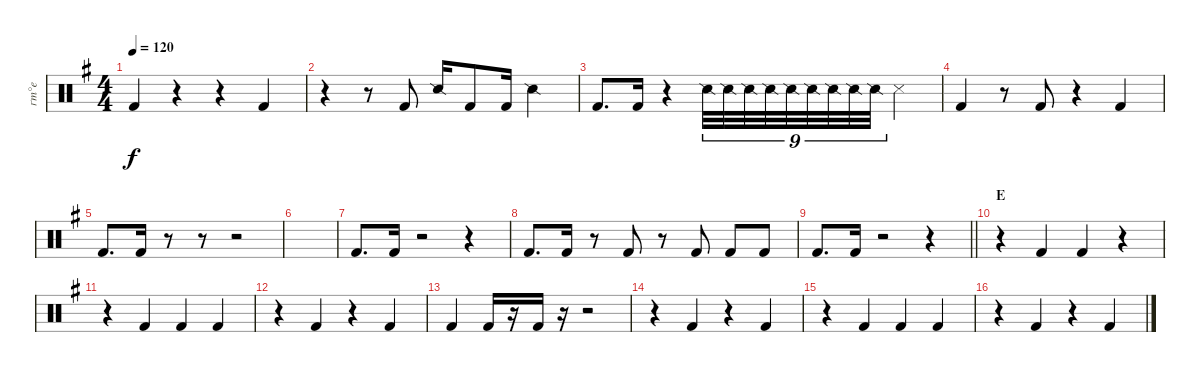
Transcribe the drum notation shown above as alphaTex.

\track ("ґт°е" "ґт°е") {instrument percussion}
\staff {score}
\articulation defaults
\ts (4 4)
\tempo 120
\clef neutral
\ks g "Kick (hit) 2".4{dy f}
r.4 r.4 "Kick (hit) 2".4 |
r.4 r.8 "Kick (hit) 2".8 "Snare (side stick) 2".16 "Kick (hit) 2".8 "Kick (hit) 2".16 "Snare (side stick) 2".4 |
"Kick (hit) 2".8{d} "Kick (hit) 2".16 r.4 "Snare (side stick) 2".32{tu (9 8)} "Snare (side stick) 2".32{tu (9 8)} "Snare (side stick) 2".32{tu (9 8)} "Snare (side stick) 2".32{tu (9 8)} "Snare (side stick) 2".32{tu (9 8)} "Snare (side stick) 2".32{tu (9 8)} "Snare (side stick) 2".32{tu (9 8)} "Snare (side stick) 2".32{tu (9 8)} "Snare (side stick) 2".32{tu (9 8)} "Snare (side stick) 3".4 |
"Kick (hit) 2".4 r.8 "Kick (hit) 2".8 r.4 "Kick (hit) 2".4 |
"Kick (hit) 2".8{d} "Kick (hit) 2".16 r.8 r.8 r.2 |
|
"Kick (hit) 2".8{d} "Kick (hit) 2".16 r.2 r.4 |
"Kick (hit) 2".8{d} "Kick (hit) 2".16 r.8 "Kick (hit) 2".8 r.8 "Kick (hit) 2".8 "Kick (hit) 2".8 "Kick (hit) 2".8 |
\barLineRight lightlight "Kick (hit) 2".8{d} "Kick (hit) 2".16
r.2 r.4 |
\section ("" "E")
r.4 "Kick (hit) 2".4 "Kick (hit) 2".4 r.4 |
r.4 "Kick (hit) 2".4 "Kick (hit) 2".4 "Kick (hit) 2".4 |
r.4 "Kick (hit) 2".4 r.4 "Kick (hit) 2".4 |
"Kick (hit) 2".4 "Kick (hit) 2".16 r.16 "Kick (hit) 2".16 r.16 r.2 |
r.4 "Kick (hit) 2".4 r.4 "Kick (hit) 2".4 |
r.4 "Kick (hit) 2".4 "Kick (hit) 2".4 "Kick (hit) 2".4 |
r.4 "Kick (hit) 2".4 r.4 "Kick (hit) 2".4
